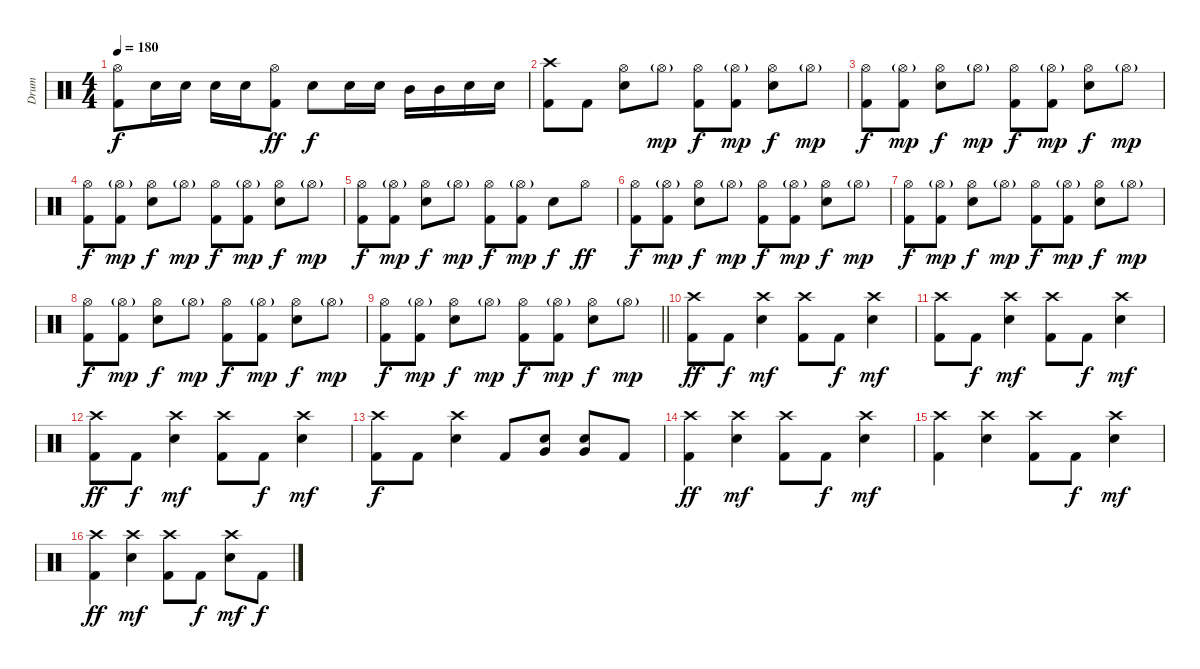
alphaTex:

\track ("Drum" "Drum") {instrument percussion}
\staff {score}
\articulation defaults
\ts (4 4)
\tempo 180
\clef neutral
\ks c
("Hi-Hat (open)" "Kick (hit) 2").8{dy f} "Electric Snare (hit)".16 "Electric Snare (hit)".16 "Electric Snare (hit)".16 "Electric Snare (hit)".16 ("Hi-Hat (open)" "Kick (hit) 2").8{dy ff} "Electric Snare (hit)".8{dy f} "Electric Snare (hit)".16 "Electric Snare (hit)".16 "Mid Tom (hit)".16 "Mid Tom (hit)".16 "Electric Snare (hit)".16 "Electric Snare (hit)".16 |
("Crash high (hit)" "Kick (hit) 2").8 "Kick (hit) 2".8 ("Hi-Hat (open)" "Electric Snare (hit)").8 "Hi-Hat (open)"{g}.8{dy mp} ("Hi-Hat (open)" "Kick (hit) 2").8{dy f} ("Hi-Hat (open)"{g} "Kick (hit) 2").8{dy mp} ("Hi-Hat (open)" "Electric Snare (hit)").8{dy f} "Hi-Hat (open)"{g}.8{dy mp} |
("Hi-Hat (open)" "Kick (hit) 2").8{dy f} ("Hi-Hat (open)"{g} "Kick (hit) 2").8{dy mp} ("Hi-Hat (open)" "Electric Snare (hit)").8{dy f} "Hi-Hat (open)"{g}.8{dy mp} ("Hi-Hat (open)" "Kick (hit) 2").8{dy f} ("Hi-Hat (open)"{g} "Kick (hit) 2").8{dy mp} ("Hi-Hat (open)" "Electric Snare (hit)").8{dy f} "Hi-Hat (open)"{g}.8{dy mp} |
("Hi-Hat (open)" "Kick (hit) 2").8{dy f} ("Hi-Hat (open)"{g} "Kick (hit) 2").8{dy mp} ("Hi-Hat (open)" "Electric Snare (hit)").8{dy f} "Hi-Hat (open)"{g}.8{dy mp} ("Hi-Hat (open)" "Kick (hit) 2").8{dy f} ("Hi-Hat (open)"{g} "Kick (hit) 2").8{dy mp} ("Hi-Hat (open)" "Electric Snare (hit)").8{dy f} "Hi-Hat (open)"{g}.8{dy mp} |
("Hi-Hat (open)" "Kick (hit) 2").8{dy f} ("Hi-Hat (open)"{g} "Kick (hit) 2").8{dy mp} ("Hi-Hat (open)" "Electric Snare (hit)").8{dy f} "Hi-Hat (open)"{g}.8{dy mp} ("Hi-Hat (open)" "Kick (hit) 2").8{dy f} ("Hi-Hat (open)"{g} "Kick (hit) 2").8{dy mp} "Electric Snare (hit)".8{dy f} "Hi-Hat (open)".8{dy ff} |
("Hi-Hat (open)" "Kick (hit) 2").8{dy f} ("Hi-Hat (open)"{g} "Kick (hit) 2").8{dy mp} ("Hi-Hat (open)" "Electric Snare (hit)").8{dy f} "Hi-Hat (open)"{g}.8{dy mp} ("Hi-Hat (open)" "Kick (hit) 2").8{dy f} ("Hi-Hat (open)"{g} "Kick (hit) 2").8{dy mp} ("Hi-Hat (open)" "Electric Snare (hit)").8{dy f} "Hi-Hat (open)"{g}.8{dy mp} |
("Hi-Hat (open)" "Kick (hit) 2").8{dy f} ("Hi-Hat (open)"{g} "Kick (hit) 2").8{dy mp} ("Hi-Hat (open)" "Electric Snare (hit)").8{dy f} "Hi-Hat (open)"{g}.8{dy mp} ("Hi-Hat (open)" "Kick (hit) 2").8{dy f} ("Hi-Hat (open)"{g} "Kick (hit) 2").8{dy mp} ("Hi-Hat (open)" "Electric Snare (hit)").8{dy f} "Hi-Hat (open)"{g}.8{dy mp} |
("Hi-Hat (open)" "Kick (hit) 2").8{dy f} ("Hi-Hat (open)"{g} "Kick (hit) 2").8{dy mp} ("Hi-Hat (open)" "Electric Snare (hit)").8{dy f} "Hi-Hat (open)"{g}.8{dy mp} ("Hi-Hat (open)" "Kick (hit) 2").8{dy f} ("Hi-Hat (open)"{g} "Kick (hit) 2").8{dy mp} ("Hi-Hat (open)" "Electric Snare (hit)").8{dy f} "Hi-Hat (open)"{g}.8{dy mp} |
\barLineRight lightlight
("Hi-Hat (open)" "Kick (hit) 2").8{dy f} ("Hi-Hat (open)"{g} "Kick (hit) 2").8{dy mp} ("Hi-Hat (open)" "Electric Snare (hit)").8{dy f} "Hi-Hat (open)"{g}.8{dy mp} ("Hi-Hat (open)" "Kick (hit) 2").8{dy f} ("Hi-Hat (open)"{g} "Kick (hit) 2").8{dy mp} ("Hi-Hat (open)" "Electric Snare (hit)").8{dy f} "Hi-Hat (open)"{g}.8{dy mp} |
("Crash high (hit)" "Kick (hit) 2").8{dy ff} "Kick (hit) 2".8{dy f} ("Crash high (hit)" "Electric Snare (hit)").4{dy mf} ("Crash high (hit)" "Kick (hit) 2").8 "Kick (hit) 2".8{dy f} ("Crash high (hit)" "Electric Snare (hit)").4{dy mf} |
("Crash high (hit)" "Kick (hit) 2").8 "Kick (hit) 2".8{dy f} ("Crash high (hit)" "Electric Snare (hit)").4{dy mf} ("Crash high (hit)" "Kick (hit) 2").8 "Kick (hit) 2".8{dy f} ("Crash high (hit)" "Electric Snare (hit)").4{dy mf} |
("Crash high (hit)" "Kick (hit) 2").8{dy ff} "Kick (hit) 2".8{dy f} ("Crash high (hit)" "Electric Snare (hit)").4{dy mf} ("Crash high (hit)" "Kick (hit) 2").8 "Kick (hit) 2".8{dy f} ("Crash high (hit)" "Electric Snare (hit)").4{dy mf} |
("Crash high (hit)" "Kick (hit) 2").8{dy f} "Kick (hit) 2".8 ("Crash high (hit)" "Electric Snare (hit)").4 "Kick (hit) 2".8 ("Very Low Tom (hit)" "Electric Snare (hit)").8 ("Very Low Tom (hit)" "Electric Snare (hit)").8 "Kick (hit) 2".8 |
("Crash high (hit)" "Kick (hit) 2").4{dy ff} ("Crash high (hit)" "Electric Snare (hit)").4{dy mf} ("Crash high (hit)" "Kick (hit) 2").8 "Kick (hit) 2".8{dy f} ("Crash high (hit)" "Electric Snare (hit)").4{dy mf} |
("Crash high (hit)" "Kick (hit) 2").4 ("Crash high (hit)" "Electric Snare (hit)").4 ("Crash high (hit)" "Kick (hit) 2").8 "Kick (hit) 2".8{dy f} ("Crash high (hit)" "Electric Snare (hit)").4{dy mf} |
("Crash high (hit)" "Kick (hit) 2").4{dy ff} ("Crash high (hit)" "Electric Snare (hit)").4{dy mf} ("Crash high (hit)" "Kick (hit) 2").8 "Kick (hit) 2".8{dy f} ("Crash high (hit)" "Electric Snare (hit)").8{dy mf} "Kick (hit) 2".8{dy f}
